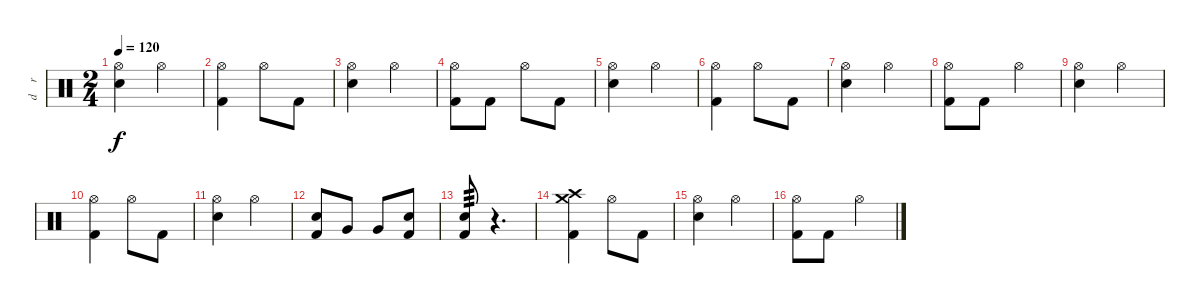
\track ("d    r     u    m    s" "d    r    ") {instrument percussion}
\staff {score}
\articulation defaults
\ts (2 4)
\tempo 120
\clef neutral
\ks c
("Hi-Hat (open)" "Snare (hit) 2").4{dy f} "Hi-Hat (open)".4 |
("Hi-Hat (open)" "Kick (hit) 2").4 "Hi-Hat (open)".8 "Kick (hit) 2".8 |
("Hi-Hat (open)" "Snare (hit) 2").4 "Hi-Hat (open)".4 |
("Hi-Hat (open)" "Kick (hit) 2").8 "Kick (hit) 2".8 "Hi-Hat (open)".8 "Kick (hit) 2".8 |
("Hi-Hat (open)" "Snare (hit) 2").4 "Hi-Hat (open)".4 |
("Hi-Hat (open)" "Kick (hit) 2").4 "Hi-Hat (open)".8 "Kick (hit) 2".8 |
("Hi-Hat (open)" "Snare (hit) 2").4 "Hi-Hat (open)".4 |
("Hi-Hat (open)" "Kick (hit) 2").8 "Kick (hit) 2".8 "Hi-Hat (open)".4 |
("Hi-Hat (open)" "Snare (hit) 2").4 "Hi-Hat (open)".4 |
("Hi-Hat (open)" "Kick (hit) 2").4 "Hi-Hat (open)".8 "Kick (hit) 2".8 |
("Hi-Hat (open)" "Snare (hit) 2").4 "Hi-Hat (open)".4 |
("Snare (hit) 2" "Kick (hit) 2").8 "Very Low Tom (hit)".8 "Very Low Tom (hit)".8 ("Snare (hit) 2" "Kick (hit) 2").8 |
("Snare (hit) 2" "Kick (hit) 2").8{tp 3} r.4{d} |
("Crash high (hit)" "Crash medium (hit)" "Kick (hit) 2").4 "Hi-Hat (open)".8 "Kick (hit) 2".8 |
("Hi-Hat (open)" "Snare (hit) 2").4 "Hi-Hat (open)".4 |
("Hi-Hat (open)" "Kick (hit) 2").8 "Kick (hit) 2".8 "Hi-Hat (open)".4
